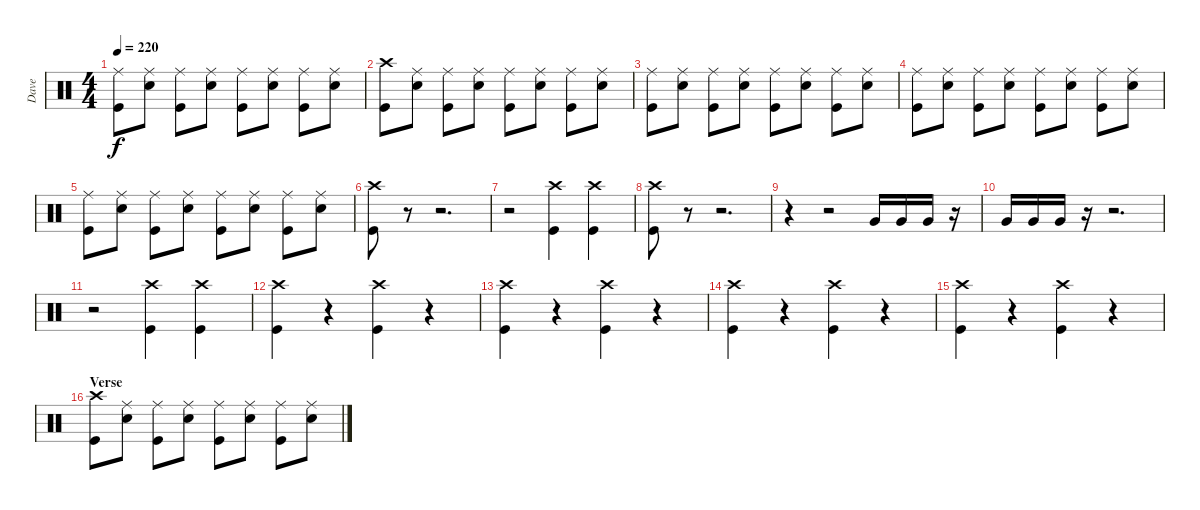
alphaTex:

\track ("Dave" "Dave") {instrument percussion}
\staff {score}
\articulation defaults
\ts (4 4)
\tempo 220
\clef neutral
\ks c
("Ride (middle)" "Kick (hit)").8{dy f} ("Ride (middle)" "Snare (hit) 2").8 ("Ride (middle)" "Kick (hit)").8 ("Ride (middle)" "Snare (hit) 2").8 ("Ride (middle)" "Kick (hit)").8 ("Ride (middle)" "Snare (hit) 2").8 ("Ride (middle)" "Kick (hit)").8 ("Ride (middle)" "Snare (hit) 2").8 |
("Crash high (hit)" "Kick (hit)").8 ("Ride (middle)" "Snare (hit) 2").8 ("Ride (middle)" "Kick (hit)").8 ("Ride (middle)" "Snare (hit) 2").8 ("Ride (middle)" "Kick (hit)").8 ("Ride (middle)" "Snare (hit) 2").8 ("Ride (middle)" "Kick (hit)").8 ("Ride (middle)" "Snare (hit) 2").8 |
("Ride (middle)" "Kick (hit)").8 ("Ride (middle)" "Snare (hit) 2").8 ("Ride (middle)" "Kick (hit)").8 ("Ride (middle)" "Snare (hit) 2").8 ("Ride (middle)" "Kick (hit)").8 ("Ride (middle)" "Snare (hit) 2").8 ("Ride (middle)" "Kick (hit)").8 ("Ride (middle)" "Snare (hit) 2").8 |
("Ride (middle)" "Kick (hit)").8 ("Ride (middle)" "Snare (hit) 2").8 ("Ride (middle)" "Kick (hit)").8 ("Ride (middle)" "Snare (hit) 2").8 ("Ride (middle)" "Kick (hit)").8 ("Ride (middle)" "Snare (hit) 2").8 ("Ride (middle)" "Kick (hit)").8 ("Ride (middle)" "Snare (hit) 2").8 |
("Ride (middle)" "Kick (hit)").8 ("Ride (middle)" "Snare (hit) 2").8 ("Ride (middle)" "Kick (hit)").8 ("Ride (middle)" "Snare (hit) 2").8 ("Ride (middle)" "Kick (hit)").8 ("Ride (middle)" "Snare (hit) 2").8 ("Ride (middle)" "Kick (hit)").8 ("Ride (middle)" "Snare (hit) 2").8 |
("Crash high (hit)" "Kick (hit)").8 r.8 r.2{d} |
r.2 ("Crash high (hit)" "Kick (hit)").4 ("Crash high (hit)" "Kick (hit)").4 |
("Crash high (hit)" "Kick (hit)").8 r.8 r.2{d} |
r.4 r.2 "Very Low Tom (hit)".16 "Very Low Tom (hit)".16 "Very Low Tom (hit)".16 r.16 |
"Very Low Tom (hit)".16 "Very Low Tom (hit)".16 "Very Low Tom (hit)".16 r.16 r.2{d} |
r.2 ("Crash high (hit)" "Kick (hit)").4 ("Crash high (hit)" "Kick (hit)").4 |
("Crash high (hit)" "Kick (hit)").4 r.4 ("Crash high (hit)" "Kick (hit)").4 r.4 |
("Crash high (hit)" "Kick (hit)").4 r.4 ("Crash high (hit)" "Kick (hit)").4 r.4 |
("Crash high (hit)" "Kick (hit)").4 r.4 ("Crash high (hit)" "Kick (hit)").4 r.4 |
("Crash high (hit)" "Kick (hit)").4 r.4 ("Crash high (hit)" "Kick (hit)").4 r.4 |
\section ("" "Verse")
("Crash high (hit)" "Kick (hit)").8 ("Ride (middle)" "Snare (hit) 2").8 ("Ride (middle)" "Kick (hit)").8 ("Ride (middle)" "Snare (hit) 2").8 ("Ride (middle)" "Kick (hit)").8 ("Ride (middle)" "Snare (hit) 2").8 ("Ride (middle)" "Kick (hit)").8 ("Ride (middle)" "Snare (hit) 2").8
